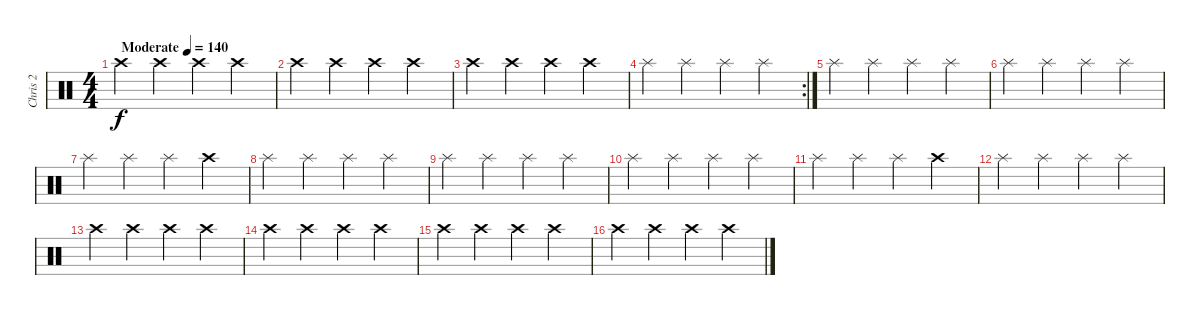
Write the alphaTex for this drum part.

\track ("Chris 2" "Chris 2") {instrument percussion}
\staff {score}
\articulation defaults
\ts (4 4)
\tempo (140 "Moderate")
\clef neutral
\ks c "Crash high (hit)".4{dy f} "Crash high (hit)".4 "Crash high (hit)".4 "Crash high (hit)".4
|
"Crash high (hit)".4 "Crash high (hit)".4 "Crash high (hit)".4 "Crash high (hit)".4 |
"Crash high (hit)".4 "Crash high (hit)".4 "Crash high (hit)".4 "Crash high (hit)".4 |
\rc 2 "Splash (hit)".4 "Splash (hit)".4 "Splash (hit)".4 "Splash (hit)".4
|
"Splash (hit)".4 "Splash (hit)".4 "Splash (hit)".4 "Splash (hit)".4 |
"Splash (hit)".4 "Splash (hit)".4 "Splash (hit)".4 "Splash (hit)".4 |
"Splash (hit)".4 "Splash (hit)".4 "Splash (hit)".4 "Crash high (hit)".4 |
"Splash (hit)".4 "Splash (hit)".4 "Splash (hit)".4 "Splash (hit)".4 |
"Splash (hit)".4 "Splash (hit)".4 "Splash (hit)".4 "Splash (hit)".4 |
"Splash (hit)".4 "Splash (hit)".4 "Splash (hit)".4 "Splash (hit)".4 |
"Splash (hit)".4 "Splash (hit)".4 "Splash (hit)".4 "Crash high (hit)".4 |
"Splash (hit)".4 "Splash (hit)".4 "Splash (hit)".4 "Splash (hit)".4 |
"Crash high (hit)".4 "Crash high (hit)".4 "Crash high (hit)".4 "Crash high (hit)".4 |
"Crash high (hit)".4 "Crash high (hit)".4 "Crash high (hit)".4 "Crash high (hit)".4 |
"Crash high (hit)".4 "Crash high (hit)".4 "Crash high (hit)".4 "Crash high (hit)".4 |
"Crash high (hit)".4 "Crash high (hit)".4 "Crash high (hit)".4 "Crash high (hit)".4
